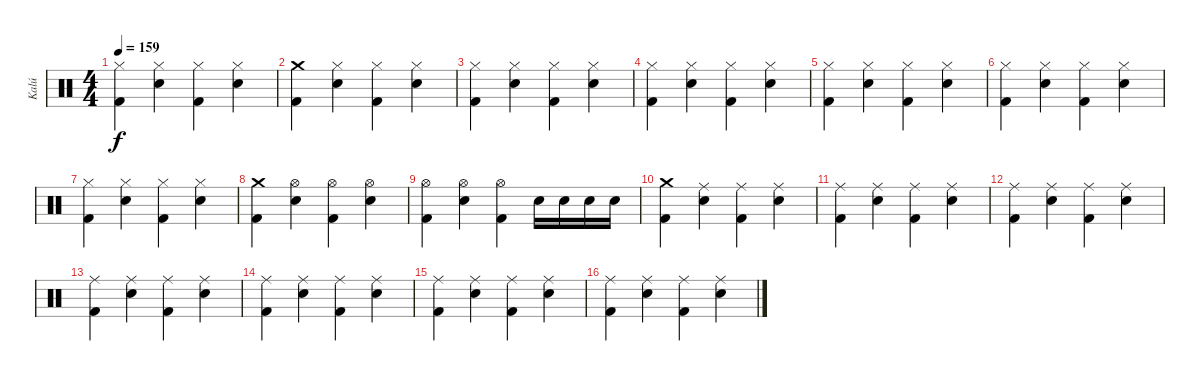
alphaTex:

\track ("Kalú" "Kalú") {instrument percussion}
\staff {score}
\articulation defaults
\ts (4 4)
\tempo 159
\clef neutral
\ks c
("Hi-Hat (closed)" "Kick (hit) 2").4{dy f} ("Hi-Hat (closed)" "Electric Snare (hit)").4 ("Hi-Hat (closed)" "Kick (hit) 2").4 ("Hi-Hat (closed)" "Electric Snare (hit)").4 |
("Crash medium (hit)" "Kick (hit) 2").4 ("Hi-Hat (closed)" "Electric Snare (hit)").4 ("Hi-Hat (closed)" "Kick (hit) 2").4 ("Hi-Hat (closed)" "Electric Snare (hit)").4 |
("Hi-Hat (closed)" "Kick (hit) 2").4 ("Hi-Hat (closed)" "Electric Snare (hit)").4 ("Hi-Hat (closed)" "Kick (hit) 2").4 ("Hi-Hat (closed)" "Electric Snare (hit)").4 |
("Hi-Hat (closed)" "Kick (hit) 2").4 ("Hi-Hat (closed)" "Electric Snare (hit)").4 ("Hi-Hat (closed)" "Kick (hit) 2").4 ("Hi-Hat (closed)" "Electric Snare (hit)").4 |
("Hi-Hat (closed)" "Kick (hit) 2").4 ("Hi-Hat (closed)" "Electric Snare (hit)").4 ("Hi-Hat (closed)" "Kick (hit) 2").4 ("Hi-Hat (closed)" "Electric Snare (hit)").4 |
("Hi-Hat (closed)" "Kick (hit) 2").4 ("Hi-Hat (closed)" "Electric Snare (hit)").4 ("Hi-Hat (closed)" "Kick (hit) 2").4 ("Hi-Hat (closed)" "Electric Snare (hit)").4 |
("Hi-Hat (closed)" "Kick (hit) 2").4 ("Hi-Hat (closed)" "Electric Snare (hit)").4 ("Hi-Hat (closed)" "Kick (hit) 2").4 ("Hi-Hat (closed)" "Electric Snare (hit)").4 |
("Crash medium (hit)" "Kick (hit) 2").4 ("Hi-Hat (open)" "Electric Snare (hit)").4 ("Hi-Hat (open)" "Kick (hit) 2").4 ("Hi-Hat (open)" "Electric Snare (hit)").4 |
("Hi-Hat (open)" "Kick (hit) 2").4 ("Hi-Hat (open)" "Electric Snare (hit)").4 ("Hi-Hat (open)" "Kick (hit) 2").4 "Electric Snare (hit)".16 "Electric Snare (hit)".16 "Electric Snare (hit)".16 "Electric Snare (hit)".16 |
("Crash medium (hit)" "Kick (hit) 2").4 ("Ride (middle)" "Electric Snare (hit)").4 ("Ride (middle)" "Kick (hit) 2").4 ("Ride (middle)" "Electric Snare (hit)").4 |
("Ride (middle)" "Kick (hit) 2").4 ("Ride (middle)" "Electric Snare (hit)").4 ("Ride (middle)" "Kick (hit) 2").4 ("Ride (middle)" "Electric Snare (hit)").4 |
("Ride (middle)" "Kick (hit) 2").4 ("Ride (middle)" "Electric Snare (hit)").4 ("Ride (middle)" "Kick (hit) 2").4 ("Ride (middle)" "Electric Snare (hit)").4 |
("Ride (middle)" "Kick (hit) 2").4 ("Ride (middle)" "Electric Snare (hit)").4 ("Ride (middle)" "Kick (hit) 2").4 ("Ride (middle)" "Electric Snare (hit)").4 |
("Ride (middle)" "Kick (hit) 2").4 ("Ride (middle)" "Electric Snare (hit)").4 ("Ride (middle)" "Kick (hit) 2").4 ("Ride (middle)" "Electric Snare (hit)").4 |
("Ride (middle)" "Kick (hit) 2").4 ("Ride (middle)" "Electric Snare (hit)").4 ("Ride (middle)" "Kick (hit) 2").4 ("Ride (middle)" "Electric Snare (hit)").4 |
("Ride (middle)" "Kick (hit) 2").4 ("Ride (middle)" "Electric Snare (hit)").4 ("Ride (middle)" "Kick (hit) 2").4 ("Ride (middle)" "Electric Snare (hit)").4
